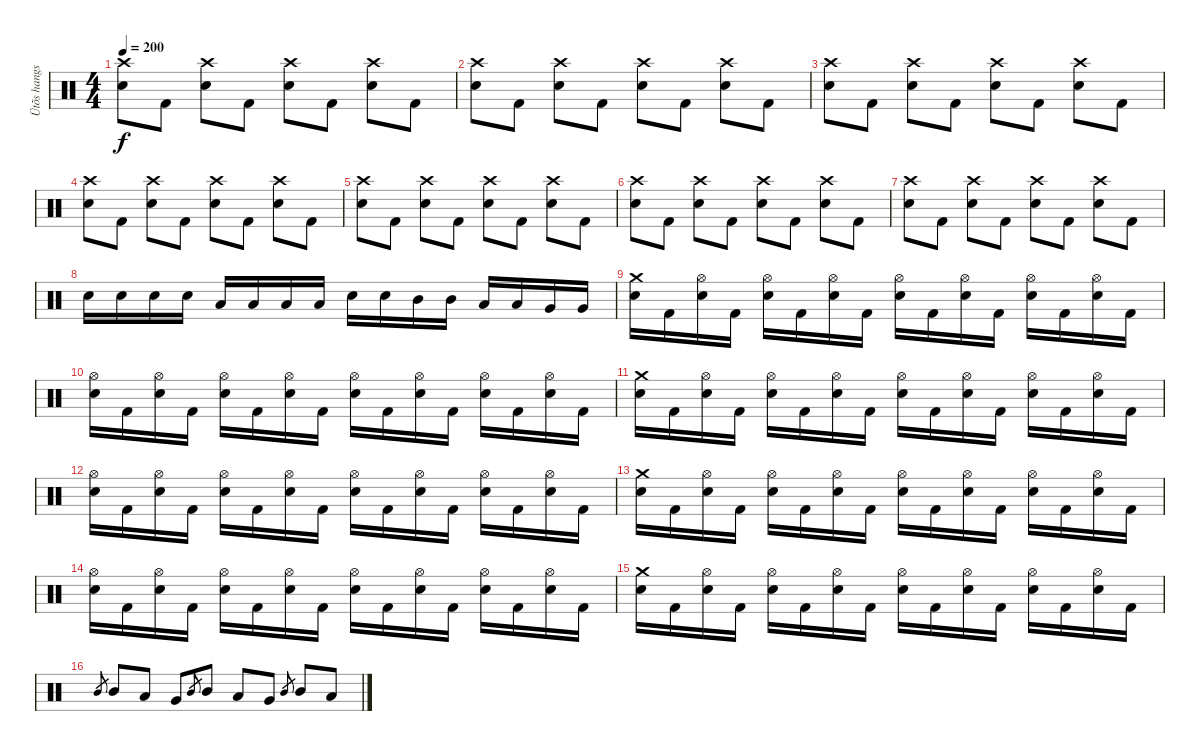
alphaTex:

\track ("Ütõs hangszer" "Ütõs hangs") {instrument percussion}
\staff {score}
\articulation defaults
\ts (4 4)
\tempo 200
\clef neutral
\ks c
("Crash high (hit)" "Snare (hit) 2").8{dy f} "Kick (hit) 2".8 ("Crash high (hit)" "Snare (hit) 2").8 "Kick (hit) 2".8 ("Crash high (hit)" "Snare (hit) 2").8 "Kick (hit) 2".8 ("Crash high (hit)" "Snare (hit) 2").8 "Kick (hit) 2".8 |
("Crash high (hit)" "Snare (hit) 2").8 "Kick (hit) 2".8 ("Crash high (hit)" "Snare (hit) 2").8 "Kick (hit) 2".8 ("Crash high (hit)" "Snare (hit) 2").8 "Kick (hit) 2".8 ("Crash high (hit)" "Snare (hit) 2").8 "Kick (hit) 2".8 |
("Crash high (hit)" "Snare (hit) 2").8 "Kick (hit) 2".8 ("Crash high (hit)" "Snare (hit) 2").8 "Kick (hit) 2".8 ("Crash high (hit)" "Snare (hit) 2").8 "Kick (hit) 2".8 ("Crash high (hit)" "Snare (hit) 2").8 "Kick (hit) 2".8 |
("Crash high (hit)" "Snare (hit) 2").8 "Kick (hit) 2".8 ("Crash high (hit)" "Snare (hit) 2").8 "Kick (hit) 2".8 ("Crash high (hit)" "Snare (hit) 2").8 "Kick (hit) 2".8 ("Crash high (hit)" "Snare (hit) 2").8 "Kick (hit) 2".8 |
("Crash high (hit)" "Snare (hit) 2").8 "Kick (hit) 2".8 ("Crash high (hit)" "Snare (hit) 2").8 "Kick (hit) 2".8 ("Crash high (hit)" "Snare (hit) 2").8 "Kick (hit) 2".8 ("Crash high (hit)" "Snare (hit) 2").8 "Kick (hit) 2".8 |
("Crash high (hit)" "Snare (hit) 2").8 "Kick (hit) 2".8 ("Crash high (hit)" "Snare (hit) 2").8 "Kick (hit) 2".8 ("Crash high (hit)" "Snare (hit) 2").8 "Kick (hit) 2".8 ("Crash high (hit)" "Snare (hit) 2").8 "Kick (hit) 2".8 |
("Crash high (hit)" "Snare (hit) 2").8 "Kick (hit) 2".8 ("Crash high (hit)" "Snare (hit) 2").8 "Kick (hit) 2".8 ("Crash high (hit)" "Snare (hit) 2").8 "Kick (hit) 2".8 ("Crash high (hit)" "Snare (hit) 2").8 "Kick (hit) 2".8 |
"Electric Snare (hit)".16 "Electric Snare (hit)".16 "Electric Snare (hit)".16 "Electric Snare (hit)".16 "Low Tom (hit)".16 "Low Tom (hit)".16 "Low Tom (hit)".16 "Low Tom (hit)".16 "Electric Snare (hit)".16 "Electric Snare (hit)".16 "Mid Tom (hit)".16 "Mid Tom (hit)".16 "Low Tom (hit)".16 "Low Tom (hit)".16 "Very Low Tom (hit)".16 "Very Low Tom (hit)".16 |
("Crash medium (hit)" "Snare (hit) 2").16 "Kick (hit) 2".16 ("Hi-Hat (open)" "Snare (hit) 2").16 "Kick (hit) 2".16 ("Hi-Hat (open)" "Snare (hit) 2").16 "Kick (hit) 2".16 ("Hi-Hat (open)" "Snare (hit) 2").16 "Kick (hit) 2".16 ("Hi-Hat (open)" "Snare (hit) 2").16 "Kick (hit) 2".16 ("Hi-Hat (open)" "Snare (hit) 2").16 "Kick (hit) 2".16 ("Hi-Hat (open)" "Snare (hit) 2").16 "Kick (hit) 2".16 ("Hi-Hat (open)" "Snare (hit) 2").16 "Kick (hit) 2".16 |
("Hi-Hat (open)" "Snare (hit) 2").16 "Kick (hit) 2".16 ("Hi-Hat (open)" "Snare (hit) 2").16 "Kick (hit) 2".16 ("Hi-Hat (open)" "Snare (hit) 2").16 "Kick (hit) 2".16 ("Hi-Hat (open)" "Snare (hit) 2").16 "Kick (hit) 2".16 ("Hi-Hat (open)" "Snare (hit) 2").16 "Kick (hit) 2".16 ("Hi-Hat (open)" "Snare (hit) 2").16 "Kick (hit) 2".16 ("Hi-Hat (open)" "Snare (hit) 2").16 "Kick (hit) 2".16 ("Hi-Hat (open)" "Snare (hit) 2").16 "Kick (hit) 2".16 |
("Crash medium (hit)" "Snare (hit) 2").16 "Kick (hit) 2".16 ("Hi-Hat (open)" "Snare (hit) 2").16 "Kick (hit) 2".16 ("Hi-Hat (open)" "Snare (hit) 2").16 "Kick (hit) 2".16 ("Hi-Hat (open)" "Snare (hit) 2").16 "Kick (hit) 2".16 ("Hi-Hat (open)" "Snare (hit) 2").16 "Kick (hit) 2".16 ("Hi-Hat (open)" "Snare (hit) 2").16 "Kick (hit) 2".16 ("Hi-Hat (open)" "Snare (hit) 2").16 "Kick (hit) 2".16 ("Hi-Hat (open)" "Snare (hit) 2").16 "Kick (hit) 2".16 |
("Hi-Hat (open)" "Snare (hit) 2").16 "Kick (hit) 2".16 ("Hi-Hat (open)" "Snare (hit) 2").16 "Kick (hit) 2".16 ("Hi-Hat (open)" "Snare (hit) 2").16 "Kick (hit) 2".16 ("Hi-Hat (open)" "Snare (hit) 2").16 "Kick (hit) 2".16 ("Hi-Hat (open)" "Snare (hit) 2").16 "Kick (hit) 2".16 ("Hi-Hat (open)" "Snare (hit) 2").16 "Kick (hit) 2".16 ("Hi-Hat (open)" "Snare (hit) 2").16 "Kick (hit) 2".16 ("Hi-Hat (open)" "Snare (hit) 2").16 "Kick (hit) 2".16 |
("Crash medium (hit)" "Snare (hit) 2").16 "Kick (hit) 2".16 ("Hi-Hat (open)" "Snare (hit) 2").16 "Kick (hit) 2".16 ("Hi-Hat (open)" "Snare (hit) 2").16 "Kick (hit) 2".16 ("Hi-Hat (open)" "Snare (hit) 2").16 "Kick (hit) 2".16 ("Hi-Hat (open)" "Snare (hit) 2").16 "Kick (hit) 2".16 ("Hi-Hat (open)" "Snare (hit) 2").16 "Kick (hit) 2".16 ("Hi-Hat (open)" "Snare (hit) 2").16 "Kick (hit) 2".16 ("Hi-Hat (open)" "Snare (hit) 2").16 "Kick (hit) 2".16 |
("Hi-Hat (open)" "Snare (hit) 2").16 "Kick (hit) 2".16 ("Hi-Hat (open)" "Snare (hit) 2").16 "Kick (hit) 2".16 ("Hi-Hat (open)" "Snare (hit) 2").16 "Kick (hit) 2".16 ("Hi-Hat (open)" "Snare (hit) 2").16 "Kick (hit) 2".16 ("Hi-Hat (open)" "Snare (hit) 2").16 "Kick (hit) 2".16 ("Hi-Hat (open)" "Snare (hit) 2").16 "Kick (hit) 2".16 ("Hi-Hat (open)" "Snare (hit) 2").16 "Kick (hit) 2".16 ("Hi-Hat (open)" "Snare (hit) 2").16 "Kick (hit) 2".16 |
("Crash medium (hit)" "Snare (hit) 2").16 "Kick (hit) 2".16 ("Hi-Hat (open)" "Snare (hit) 2").16 "Kick (hit) 2".16 ("Hi-Hat (open)" "Snare (hit) 2").16 "Kick (hit) 2".16 ("Hi-Hat (open)" "Snare (hit) 2").16 "Kick (hit) 2".16 ("Hi-Hat (open)" "Snare (hit) 2").16 "Kick (hit) 2".16 ("Hi-Hat (open)" "Snare (hit) 2").16 "Kick (hit) 2".16 ("Hi-Hat (open)" "Snare (hit) 2").16 "Kick (hit) 2".16 ("Hi-Hat (open)" "Snare (hit) 2").16 "Kick (hit) 2".16 |
"Mid Tom (hit)".8{gr} "Mid Tom (hit)".8 "Low Tom (hit)".8 "Very Low Tom (hit)".8 "Mid Tom (hit)".8{gr} "Mid Tom (hit)".8 "Low Tom (hit)".8 "Very Low Tom (hit)".8 "Mid Tom (hit)".8{gr} "Mid Tom (hit)".8 "Low Tom (hit)".8
